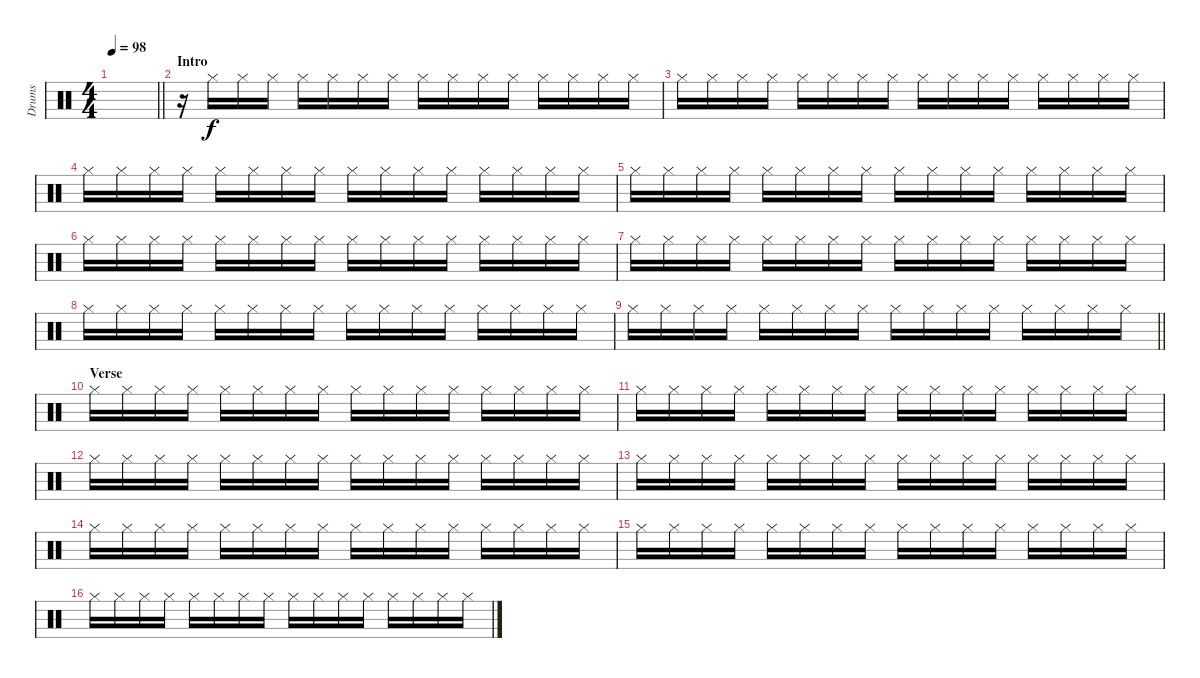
\track ("Drums" "Drums") {instrument percussion}
\staff {score}
\articulation defaults
\ts (4 4)
\tempo 98
\clef neutral
\barLineRight lightlight
\ks c
|
\section ("" "Intro")
r.16 "Hi-Hat (closed)".16 "Hi-Hat (closed)".16 "Hi-Hat (closed)".16 "Hi-Hat (closed)".16 "Hi-Hat (closed)".16 "Hi-Hat (closed)".16 "Hi-Hat (closed)".16 "Hi-Hat (closed)".16 "Hi-Hat (closed)".16 "Hi-Hat (closed)".16 "Hi-Hat (closed)".16 "Hi-Hat (closed)".16 "Hi-Hat (closed)".16 "Hi-Hat (closed)".16 "Hi-Hat (closed)".16 |
"Hi-Hat (closed)".16 "Hi-Hat (closed)".16 "Hi-Hat (closed)".16 "Hi-Hat (closed)".16 "Hi-Hat (closed)".16 "Hi-Hat (closed)".16 "Hi-Hat (closed)".16 "Hi-Hat (closed)".16 "Hi-Hat (closed)".16 "Hi-Hat (closed)".16 "Hi-Hat (closed)".16 "Hi-Hat (closed)".16 "Hi-Hat (closed)".16 "Hi-Hat (closed)".16 "Hi-Hat (closed)".16 "Hi-Hat (closed)".16 |
"Hi-Hat (closed)".16 "Hi-Hat (closed)".16 "Hi-Hat (closed)".16 "Hi-Hat (closed)".16 "Hi-Hat (closed)".16 "Hi-Hat (closed)".16 "Hi-Hat (closed)".16 "Hi-Hat (closed)".16 "Hi-Hat (closed)".16 "Hi-Hat (closed)".16 "Hi-Hat (closed)".16 "Hi-Hat (closed)".16 "Hi-Hat (closed)".16 "Hi-Hat (closed)".16 "Hi-Hat (closed)".16 "Hi-Hat (closed)".16 |
"Hi-Hat (closed)".16 "Hi-Hat (closed)".16 "Hi-Hat (closed)".16 "Hi-Hat (closed)".16 "Hi-Hat (closed)".16 "Hi-Hat (closed)".16 "Hi-Hat (closed)".16 "Hi-Hat (closed)".16 "Hi-Hat (closed)".16 "Hi-Hat (closed)".16 "Hi-Hat (closed)".16 "Hi-Hat (closed)".16 "Hi-Hat (closed)".16 "Hi-Hat (closed)".16 "Hi-Hat (closed)".16 "Hi-Hat (closed)".16 |
"Hi-Hat (closed)".16 "Hi-Hat (closed)".16 "Hi-Hat (closed)".16 "Hi-Hat (closed)".16 "Hi-Hat (closed)".16 "Hi-Hat (closed)".16 "Hi-Hat (closed)".16 "Hi-Hat (closed)".16 "Hi-Hat (closed)".16 "Hi-Hat (closed)".16 "Hi-Hat (closed)".16 "Hi-Hat (closed)".16 "Hi-Hat (closed)".16 "Hi-Hat (closed)".16 "Hi-Hat (closed)".16 "Hi-Hat (closed)".16 |
"Hi-Hat (closed)".16 "Hi-Hat (closed)".16 "Hi-Hat (closed)".16 "Hi-Hat (closed)".16 "Hi-Hat (closed)".16 "Hi-Hat (closed)".16 "Hi-Hat (closed)".16 "Hi-Hat (closed)".16 "Hi-Hat (closed)".16 "Hi-Hat (closed)".16 "Hi-Hat (closed)".16 "Hi-Hat (closed)".16 "Hi-Hat (closed)".16 "Hi-Hat (closed)".16 "Hi-Hat (closed)".16 "Hi-Hat (closed)".16 |
"Hi-Hat (closed)".16 "Hi-Hat (closed)".16 "Hi-Hat (closed)".16 "Hi-Hat (closed)".16 "Hi-Hat (closed)".16 "Hi-Hat (closed)".16 "Hi-Hat (closed)".16 "Hi-Hat (closed)".16 "Hi-Hat (closed)".16 "Hi-Hat (closed)".16 "Hi-Hat (closed)".16 "Hi-Hat (closed)".16 "Hi-Hat (closed)".16 "Hi-Hat (closed)".16 "Hi-Hat (closed)".16 "Hi-Hat (closed)".16 |
\barLineRight lightlight "Hi-Hat (closed)".16 "Hi-Hat (closed)".16 "Hi-Hat (closed)".16 "Hi-Hat (closed)".16 "Hi-Hat (closed)".16 "Hi-Hat (closed)".16 "Hi-Hat (closed)".16 "Hi-Hat (closed)".16 "Hi-Hat (closed)".16 "Hi-Hat (closed)".16 "Hi-Hat (closed)".16 "Hi-Hat (closed)".16 "Hi-Hat (closed)".16 "Hi-Hat (closed)".16 "Hi-Hat (closed)".16 "Hi-Hat (closed)".16
|
\section ("" "Verse")
"Hi-Hat (closed)".16 "Hi-Hat (closed)".16 "Hi-Hat (closed)".16 "Hi-Hat (closed)".16 "Hi-Hat (closed)".16 "Hi-Hat (closed)".16 "Hi-Hat (closed)".16 "Hi-Hat (closed)".16 "Hi-Hat (closed)".16 "Hi-Hat (closed)".16 "Hi-Hat (closed)".16 "Hi-Hat (closed)".16 "Hi-Hat (closed)".16 "Hi-Hat (closed)".16 "Hi-Hat (closed)".16 "Hi-Hat (closed)".16 |
"Hi-Hat (closed)".16 "Hi-Hat (closed)".16 "Hi-Hat (closed)".16 "Hi-Hat (closed)".16 "Hi-Hat (closed)".16 "Hi-Hat (closed)".16 "Hi-Hat (closed)".16 "Hi-Hat (closed)".16 "Hi-Hat (closed)".16 "Hi-Hat (closed)".16 "Hi-Hat (closed)".16 "Hi-Hat (closed)".16 "Hi-Hat (closed)".16 "Hi-Hat (closed)".16 "Hi-Hat (closed)".16 "Hi-Hat (closed)".16 |
"Hi-Hat (closed)".16 "Hi-Hat (closed)".16 "Hi-Hat (closed)".16 "Hi-Hat (closed)".16 "Hi-Hat (closed)".16 "Hi-Hat (closed)".16 "Hi-Hat (closed)".16 "Hi-Hat (closed)".16 "Hi-Hat (closed)".16 "Hi-Hat (closed)".16 "Hi-Hat (closed)".16 "Hi-Hat (closed)".16 "Hi-Hat (closed)".16 "Hi-Hat (closed)".16 "Hi-Hat (closed)".16 "Hi-Hat (closed)".16 |
"Hi-Hat (closed)".16 "Hi-Hat (closed)".16 "Hi-Hat (closed)".16 "Hi-Hat (closed)".16 "Hi-Hat (closed)".16 "Hi-Hat (closed)".16 "Hi-Hat (closed)".16 "Hi-Hat (closed)".16 "Hi-Hat (closed)".16 "Hi-Hat (closed)".16 "Hi-Hat (closed)".16 "Hi-Hat (closed)".16 "Hi-Hat (closed)".16 "Hi-Hat (closed)".16 "Hi-Hat (closed)".16 "Hi-Hat (closed)".16 |
"Hi-Hat (closed)".16 "Hi-Hat (closed)".16 "Hi-Hat (closed)".16 "Hi-Hat (closed)".16 "Hi-Hat (closed)".16 "Hi-Hat (closed)".16 "Hi-Hat (closed)".16 "Hi-Hat (closed)".16 "Hi-Hat (closed)".16 "Hi-Hat (closed)".16 "Hi-Hat (closed)".16 "Hi-Hat (closed)".16 "Hi-Hat (closed)".16 "Hi-Hat (closed)".16 "Hi-Hat (closed)".16 "Hi-Hat (closed)".16 |
"Hi-Hat (closed)".16 "Hi-Hat (closed)".16 "Hi-Hat (closed)".16 "Hi-Hat (closed)".16 "Hi-Hat (closed)".16 "Hi-Hat (closed)".16 "Hi-Hat (closed)".16 "Hi-Hat (closed)".16 "Hi-Hat (closed)".16 "Hi-Hat (closed)".16 "Hi-Hat (closed)".16 "Hi-Hat (closed)".16 "Hi-Hat (closed)".16 "Hi-Hat (closed)".16 "Hi-Hat (closed)".16 "Hi-Hat (closed)".16 |
"Hi-Hat (closed)".16 "Hi-Hat (closed)".16 "Hi-Hat (closed)".16 "Hi-Hat (closed)".16 "Hi-Hat (closed)".16 "Hi-Hat (closed)".16 "Hi-Hat (closed)".16 "Hi-Hat (closed)".16 "Hi-Hat (closed)".16 "Hi-Hat (closed)".16 "Hi-Hat (closed)".16 "Hi-Hat (closed)".16 "Hi-Hat (closed)".16 "Hi-Hat (closed)".16 "Hi-Hat (closed)".16 "Hi-Hat (closed)".16
